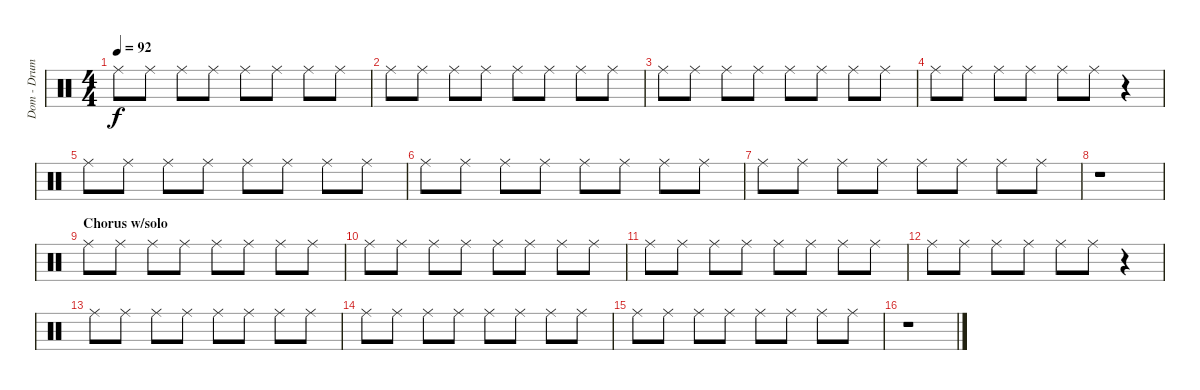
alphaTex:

\track ("Dom - Drums 2" "Dom - Drum") {instrument percussion}
\staff {score}
\articulation defaults
\ts (4 4)
\tempo 92
\clef neutral
\ks c "Ride (middle)".8{dy f} "Ride (middle)".8 "Ride (middle)".8 "Ride (middle)".8 "Ride (middle)".8 "Ride (middle)".8 "Ride (middle)".8 "Ride (middle)".8
|
"Ride (middle)".8 "Ride (middle)".8 "Ride (middle)".8 "Ride (middle)".8 "Ride (middle)".8 "Ride (middle)".8 "Ride (middle)".8 "Ride (middle)".8 |
"Ride (middle)".8 "Ride (middle)".8 "Ride (middle)".8 "Ride (middle)".8 "Ride (middle)".8 "Ride (middle)".8 "Ride (middle)".8 "Ride (middle)".8 |
"Ride (middle)".8 "Ride (middle)".8 "Ride (middle)".8 "Ride (middle)".8 "Ride (middle)".8 "Ride (middle)".8 r.4 |
"Ride (middle)".8 "Ride (middle)".8 "Ride (middle)".8 "Ride (middle)".8 "Ride (middle)".8 "Ride (middle)".8 "Ride (middle)".8 "Ride (middle)".8 |
"Ride (middle)".8 "Ride (middle)".8 "Ride (middle)".8 "Ride (middle)".8 "Ride (middle)".8 "Ride (middle)".8 "Ride (middle)".8 "Ride (middle)".8 |
"Ride (middle)".8 "Ride (middle)".8 "Ride (middle)".8 "Ride (middle)".8 "Ride (middle)".8 "Ride (middle)".8 "Ride (middle)".8 "Ride (middle)".8 |
r.1 |
\section ("" "Chorus w/solo")
"Ride (middle)".8 "Ride (middle)".8 "Ride (middle)".8 "Ride (middle)".8 "Ride (middle)".8 "Ride (middle)".8 "Ride (middle)".8 "Ride (middle)".8 |
"Ride (middle)".8 "Ride (middle)".8 "Ride (middle)".8 "Ride (middle)".8 "Ride (middle)".8 "Ride (middle)".8 "Ride (middle)".8 "Ride (middle)".8 |
"Ride (middle)".8 "Ride (middle)".8 "Ride (middle)".8 "Ride (middle)".8 "Ride (middle)".8 "Ride (middle)".8 "Ride (middle)".8 "Ride (middle)".8 |
"Ride (middle)".8 "Ride (middle)".8 "Ride (middle)".8 "Ride (middle)".8 "Ride (middle)".8 "Ride (middle)".8 r.4 |
"Ride (middle)".8 "Ride (middle)".8 "Ride (middle)".8 "Ride (middle)".8 "Ride (middle)".8 "Ride (middle)".8 "Ride (middle)".8 "Ride (middle)".8 |
"Ride (middle)".8 "Ride (middle)".8 "Ride (middle)".8 "Ride (middle)".8 "Ride (middle)".8 "Ride (middle)".8 "Ride (middle)".8 "Ride (middle)".8 |
"Ride (middle)".8 "Ride (middle)".8 "Ride (middle)".8 "Ride (middle)".8 "Ride (middle)".8 "Ride (middle)".8 "Ride (middle)".8 "Ride (middle)".8 |
r.1
